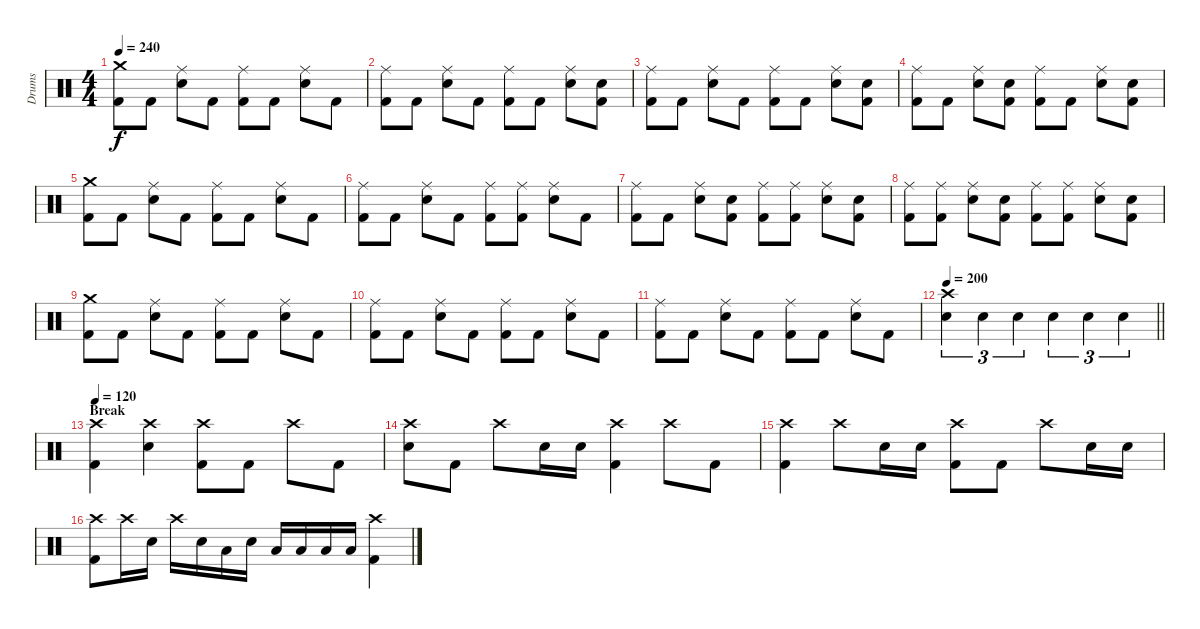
\track ("Drums" "Drums") {instrument percussion}
\staff {score}
\articulation defaults
\ts (4 4)
\tempo 240
\clef neutral
\ks c
("Crash medium (hit)" "Kick (hit) 2").8{dy f} "Kick (hit) 2".8 ("Ride (middle)" "Snare (hit) 2").8 "Kick (hit) 2".8 ("Ride (middle)" "Kick (hit) 2").8 "Kick (hit) 2".8 ("Ride (middle)" "Snare (hit) 2").8 "Kick (hit) 2".8 |
("Ride (middle)" "Kick (hit) 2").8 "Kick (hit) 2".8 ("Ride (middle)" "Snare (hit) 2").8 "Kick (hit) 2".8 ("Ride (middle)" "Kick (hit) 2").8 "Kick (hit) 2".8 ("Ride (middle)" "Snare (hit) 2").8 ("Snare (hit) 2" "Kick (hit) 2").8 |
("Ride (middle)" "Kick (hit) 2").8 "Kick (hit) 2".8 ("Ride (middle)" "Snare (hit) 2").8 "Kick (hit) 2".8 ("Ride (middle)" "Kick (hit) 2").8 "Kick (hit) 2".8 ("Ride (middle)" "Snare (hit) 2").8 ("Snare (hit) 2" "Kick (hit) 2").8 |
("Ride (middle)" "Kick (hit) 2").8 "Kick (hit) 2".8 ("Ride (middle)" "Snare (hit) 2").8 ("Snare (hit) 2" "Kick (hit) 2").8 ("Ride (middle)" "Kick (hit) 2").8 "Kick (hit) 2".8 ("Ride (middle)" "Snare (hit) 2").8 ("Snare (hit) 2" "Kick (hit) 2").8 |
("Crash medium (hit)" "Kick (hit) 2").8 "Kick (hit) 2".8 ("Ride (middle)" "Snare (hit) 2").8 "Kick (hit) 2".8 ("Ride (middle)" "Kick (hit) 2").8 "Kick (hit) 2".8 ("Ride (middle)" "Snare (hit) 2").8 "Kick (hit) 2".8 |
("Ride (middle)" "Kick (hit) 2").8 "Kick (hit) 2".8 ("Ride (middle)" "Snare (hit) 2").8 "Kick (hit) 2".8 ("Ride (middle)" "Kick (hit) 2").8 ("Ride (middle)" "Kick (hit) 2").8 ("Ride (middle)" "Snare (hit) 2").8 "Kick (hit) 2".8 |
("Ride (middle)" "Kick (hit) 2").8 "Kick (hit) 2".8 ("Ride (middle)" "Snare (hit) 2").8 ("Snare (hit) 2" "Kick (hit) 2").8 ("Ride (middle)" "Kick (hit) 2").8 ("Ride (middle)" "Kick (hit) 2").8 ("Ride (middle)" "Snare (hit) 2").8 ("Snare (hit) 2" "Kick (hit) 2").8 |
("Ride (middle)" "Kick (hit) 2").8 ("Ride (middle)" "Kick (hit) 2").8 ("Ride (middle)" "Snare (hit) 2").8 ("Snare (hit) 2" "Kick (hit) 2").8 ("Ride (middle)" "Kick (hit) 2").8 ("Ride (middle)" "Kick (hit) 2").8 ("Ride (middle)" "Snare (hit) 2").8 ("Snare (hit) 2" "Kick (hit) 2").8 |
("Crash medium (hit)" "Kick (hit) 2").8 "Kick (hit) 2".8 ("Ride (middle)" "Snare (hit) 2").8 "Kick (hit) 2".8 ("Ride (middle)" "Kick (hit) 2").8 "Kick (hit) 2".8 ("Ride (middle)" "Snare (hit) 2").8 "Kick (hit) 2".8 |
("Ride (middle)" "Kick (hit) 2").8 "Kick (hit) 2".8 ("Ride (middle)" "Snare (hit) 2").8 "Kick (hit) 2".8 ("Ride (middle)" "Kick (hit) 2").8 "Kick (hit) 2".8 ("Ride (middle)" "Snare (hit) 2").8 "Kick (hit) 2".8 |
("Ride (middle)" "Kick (hit) 2").8 "Kick (hit) 2".8 ("Ride (middle)" "Snare (hit) 2").8 "Kick (hit) 2".8 ("Ride (middle)" "Kick (hit) 2").8 "Kick (hit) 2".8 ("Ride (middle)" "Snare (hit) 2").8 "Kick (hit) 2".8 |
\tempo 200
\barLineRight lightlight
("Crash high (hit)" "Snare (hit) 2").4{tu (3 2)} "Snare (hit) 2".4{tu (3 2)} "Snare (hit) 2".4{tu (3 2)} "Snare (hit) 2".4{tu (3 2)} "Snare (hit) 2".4{tu (3 2)} "Snare (hit) 2".4{tu (3 2)} |
\section ("" "Break")
\tempo 120
("Crash high (hit)" "Kick (hit) 2").4 ("Crash high (hit)" "Snare (hit) 2").4 ("Crash high (hit)" "Kick (hit) 2").8 "Kick (hit) 2".8 "Crash high (hit)".8 "Kick (hit) 2".8 |
("Crash high (hit)" "Snare (hit) 2").8 "Kick (hit) 2".8 "Crash high (hit)".8 "Snare (hit) 2".16 "Snare (hit) 2".16 ("Crash high (hit)" "Kick (hit) 2").4 "Crash high (hit)".8 "Kick (hit) 2".8 |
("Crash high (hit)" "Kick (hit) 2").4 "Crash high (hit)".8 "Snare (hit) 2".16 "Snare (hit) 2".16 ("Crash high (hit)" "Kick (hit) 2").8 "Kick (hit) 2".8 "Crash high (hit)".8 "Snare (hit) 2".16 "Snare (hit) 2".16 |
("Crash high (hit)" "Kick (hit) 2").8 "Crash high (hit)".16 "Snare (hit) 2".16 "Crash high (hit)".16 "Snare (hit) 2".16 "Low Tom (hit)".16 "Snare (hit) 2".16 "Low Tom (hit)".16 "Low Tom (hit)".16 "Low Tom (hit)".16 "Low Tom (hit)".16 ("Crash high (hit)" "Kick (hit) 2").4
